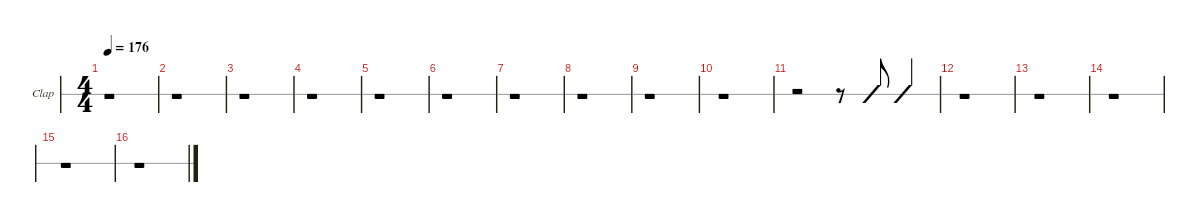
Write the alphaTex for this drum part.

\defaultSystemsLayout 4
\hideDynamics
\bracketExtendMode nobrackets
\firstSystemTrackNameOrientation horizontal
\track ("Clap" "Clap") {defaultSystemsLayout 4 instrument percussion}
\staff {slash}
\articulation defaults
\ts (4 4)
\tempo 176
\clef neutral
\ks f#
r.1{dy fff} |
r.1 |
r.1 |
r.1 |
r.1 |
r.1 |
r.1 |
r.1 |
r.1 |
r.1 |
r.2 r.8 "Hand Clap (hit)"{acc forcenatural}.8{dy f} "Hand Clap (hit)"{acc forcenatural}.4 |
r.1 |
r.1 |
r.1 |
r.1 |
r.1
